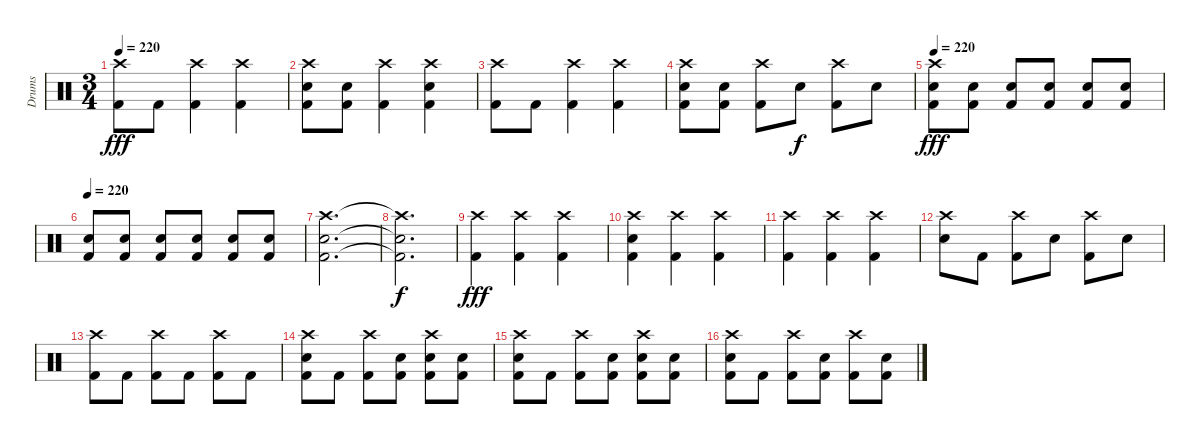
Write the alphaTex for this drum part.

\track ("Drums" "Drums") {instrument percussion}
\staff {score}
\articulation defaults
\ts (3 4)
\tempo 220
\clef neutral
\ks c
("Crash high (hit)" "Kick (hit) 2").8{dy fff} "Kick (hit) 2".8 ("Crash high (hit)" "Kick (hit) 2").4 ("Crash high (hit)" "Kick (hit) 2").4 |
("Crash high (hit)" "Electric Snare (hit)" "Kick (hit) 2").8 ("Electric Snare (hit)" "Kick (hit) 2").8 ("Crash high (hit)" "Kick (hit) 2").4 ("Crash high (hit)" "Electric Snare (hit)" "Kick (hit) 2").4 |
("Crash high (hit)" "Kick (hit) 2").8 "Kick (hit) 2".8 ("Crash high (hit)" "Kick (hit) 2").4 ("Crash high (hit)" "Kick (hit) 2").4 |
("Crash high (hit)" "Electric Snare (hit)" "Kick (hit) 2").8 ("Electric Snare (hit)" "Kick (hit) 2").8 ("Crash high (hit)" "Kick (hit) 2").8 "Electric Snare (hit)".8{dy f} ("Crash high (hit)" "Kick (hit) 2").8 "Electric Snare (hit)".8 |
\tempo 220
("Crash high (hit)" "Electric Snare (hit)" "Kick (hit) 2").8{dy fff} ("Electric Snare (hit)" "Kick (hit) 2").8 ("Electric Snare (hit)" "Kick (hit) 2").8 ("Electric Snare (hit)" "Kick (hit) 2").8 ("Electric Snare (hit)" "Kick (hit) 2").8 ("Electric Snare (hit)" "Kick (hit) 2").8 |
\tempo 220
("Electric Snare (hit)" "Kick (hit) 2").8 ("Electric Snare (hit)" "Kick (hit) 2").8 ("Electric Snare (hit)" "Kick (hit) 2").8 ("Electric Snare (hit)" "Kick (hit) 2").8 ("Electric Snare (hit)" "Kick (hit) 2").8 ("Electric Snare (hit)" "Kick (hit) 2").8 |
("Crash high (hit)" "Electric Snare (hit)" "Kick (hit) 2").2{d} |
("Crash high (hit)"{t} "Electric Snare (hit)"{t} "Kick (hit) 2"{t}).2{d dy f} |
("Crash high (hit)" "Kick (hit) 2").4{dy fff} ("Crash high (hit)" "Kick (hit) 2").4 ("Crash high (hit)" "Kick (hit) 2").4 |
("Crash high (hit)" "Electric Snare (hit)" "Kick (hit) 2").4 ("Crash high (hit)" "Kick (hit) 2").4 ("Crash high (hit)" "Kick (hit) 2").4 |
("Crash high (hit)" "Kick (hit) 2").4 ("Crash high (hit)" "Kick (hit) 2").4 ("Crash high (hit)" "Kick (hit) 2").4 |
("Crash high (hit)" "Electric Snare (hit)").8 "Kick (hit) 2".8 ("Crash high (hit)" "Kick (hit) 2").8 "Electric Snare (hit)".8 ("Crash high (hit)" "Kick (hit) 2").8 "Electric Snare (hit)".8 |
("Crash high (hit)" "Kick (hit) 2").8 "Kick (hit) 2".8 ("Crash high (hit)" "Kick (hit) 2").8 "Kick (hit) 2".8 ("Crash high (hit)" "Kick (hit) 2").8 "Kick (hit) 2".8 |
("Crash high (hit)" "Electric Snare (hit)" "Kick (hit) 2").8 "Kick (hit) 2".8 ("Crash high (hit)" "Kick (hit) 2").8 ("Electric Snare (hit)" "Kick (hit) 2").8 ("Crash high (hit)" "Electric Snare (hit)" "Kick (hit) 2").8 ("Electric Snare (hit)" "Kick (hit) 2").8 |
("Crash high (hit)" "Electric Snare (hit)" "Kick (hit) 2").8 "Kick (hit) 2".8 ("Crash high (hit)" "Kick (hit) 2").8 ("Electric Snare (hit)" "Kick (hit) 2").8 ("Crash high (hit)" "Electric Snare (hit)" "Kick (hit) 2").8 ("Electric Snare (hit)" "Kick (hit) 2").8 |
("Crash high (hit)" "Electric Snare (hit)" "Kick (hit) 2").8 "Kick (hit) 2".8 ("Crash high (hit)" "Kick (hit) 2").8 ("Electric Snare (hit)" "Kick (hit) 2").8 ("Crash high (hit)" "Kick (hit) 2").8 ("Electric Snare (hit)" "Kick (hit) 2").8
